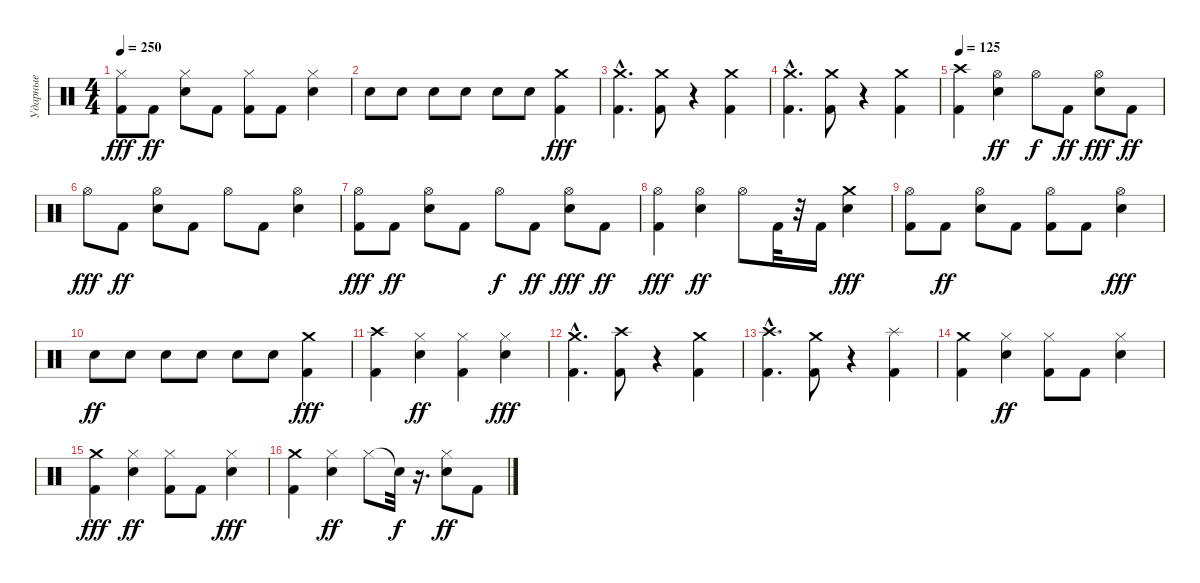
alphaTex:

\track ("Ударные" "Ударные") {instrument percussion}
\staff {score}
\articulation defaults
\ts (4 4)
\tempo 250
\clef neutral
\ks c
("Kick (hit) 2" "Hi-Hat (closed)").8{dy fff} "Kick (hit) 2".8{dy ff} ("Hi-Hat (closed)" "Electric Snare (hit)").8 "Kick (hit) 2".8 ("Kick (hit) 2" "Hi-Hat (closed)").8 "Kick (hit) 2".8 ("Hi-Hat (closed)" "Electric Snare (hit)").4 |
"Electric Snare (hit)".8 "Electric Snare (hit)".8 "Electric Snare (hit)".8 "Electric Snare (hit)".8 "Electric Snare (hit)".8 "Electric Snare (hit)".8 ("Kick (hit) 2" "Crash medium (hit)").4{dy fff} |
("Kick (hit) 2"{hac} "Crash medium (hit)"{hac}).4{d} ("Kick (hit) 2" "Crash medium (hit)").8 r.4 ("Kick (hit) 2" "Crash medium (hit)").4 |
("Kick (hit) 2"{hac} "Crash medium (hit)"{hac}).4{d} ("Kick (hit) 2" "Crash medium (hit)").8 r.4 ("Kick (hit) 2" "Crash medium (hit)").4 |
\tempo 125
("Kick (hit) 2" "Crash high (hit)").4 ("Electric Snare (hit)" "Hi-Hat (open)").4{dy ff} "Hi-Hat (open)".8{dy f} "Kick (hit) 2".8{dy ff} ("Electric Snare (hit)" "Hi-Hat (open)").8{dy fff} "Kick (hit) 2".8{dy ff} |
"Hi-Hat (open)".8{dy fff} "Kick (hit) 2".8{dy ff} ("Electric Snare (hit)" "Hi-Hat (open)").8 "Kick (hit) 2".8 "Hi-Hat (open)".8 "Kick (hit) 2".8 ("Electric Snare (hit)" "Hi-Hat (open)").4 |
("Kick (hit) 2" "Hi-Hat (open)").8{dy fff} "Kick (hit) 2".8{dy ff} ("Electric Snare (hit)" "Hi-Hat (open)").8 "Kick (hit) 2".8 "Hi-Hat (open)".8{dy f} "Kick (hit) 2".8{dy ff} ("Electric Snare (hit)" "Hi-Hat (open)").8{dy fff} "Kick (hit) 2".8{dy ff} |
("Kick (hit) 2" "Hi-Hat (open)").4{dy fff} ("Electric Snare (hit)" "Hi-Hat (open)").4{dy ff} "Hi-Hat (open)".8 "Kick (hit) 2".32 r.32 "Kick (hit) 2".16 ("Electric Snare (hit)" "Crash medium (hit)").4{dy fff} |
("Kick (hit) 2" "Hi-Hat (open)").8 "Kick (hit) 2".8{dy ff} ("Electric Snare (hit)" "Hi-Hat (open)").8 "Kick (hit) 2".8 ("Kick (hit) 2" "Hi-Hat (open)").8 "Kick (hit) 2".8 ("Electric Snare (hit)" "Hi-Hat (open)").4{dy fff} |
"Electric Snare (hit)".8{dy ff} "Electric Snare (hit)".8 "Electric Snare (hit)".8 "Electric Snare (hit)".8 "Electric Snare (hit)".8 "Electric Snare (hit)".8 ("Kick (hit) 2" "Crash medium (hit)").4{dy fff} |
("Kick (hit) 2" "Crash high (hit)").4 ("Electric Snare (hit)" "Hi-Hat (closed)").4{dy ff} ("Kick (hit) 2" "Hi-Hat (closed)").4 ("Electric Snare (hit)" "Hi-Hat (closed)").4{dy fff} |
("Kick (hit) 2"{hac} "Crash medium (hit)"{hac}).4{d} ("Kick (hit) 2" "Crash high (hit)").8 r.4 ("Kick (hit) 2" "Crash medium (hit)").4 |
("Kick (hit) 2"{hac} "Crash high (hit)"{hac}).4{d} ("Kick (hit) 2" "Crash medium (hit)").8 r.4 ("Kick (hit) 2" "Splash (hit)").4 |
("Kick (hit) 2" "Crash medium (hit)").4 ("Electric Snare (hit)" "Hi-Hat (closed)").4{dy ff} ("Kick (hit) 2" "Hi-Hat (closed)").8 "Kick (hit) 2".8 ("Electric Snare (hit)" "Hi-Hat (closed)").4 |
("Kick (hit) 2" "Crash medium (hit)").4{dy fff} ("Electric Snare (hit)" "Hi-Hat (closed)").4{dy ff} ("Kick (hit) 2" "Hi-Hat (closed)").8 "Kick (hit) 2".8 ("Electric Snare (hit)" "Hi-Hat (closed)").4{dy fff} |
("Kick (hit) 2" "Crash medium (hit)").4 ("Electric Snare (hit)" "Hi-Hat (closed)").4{dy ff} "Hi-Hat (closed)".8 "Snare (hit)"{t}.32{dy f} r.16{d} ("Electric Snare (hit)" "Hi-Hat (closed)").8{dy ff} "Kick (hit) 2".8
